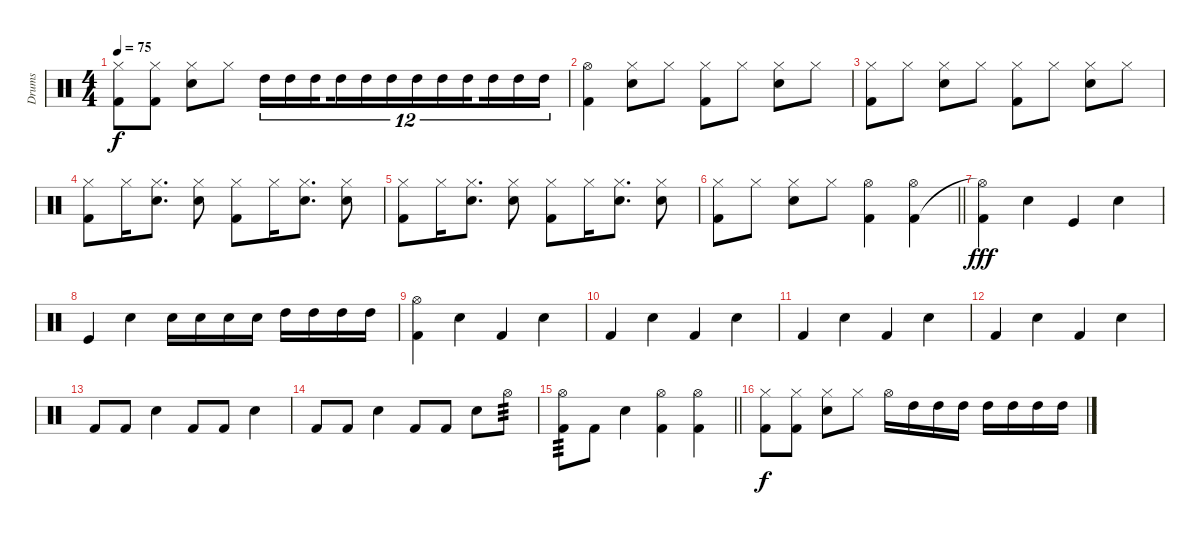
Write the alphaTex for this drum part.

\track ("Drums" "Drums") {instrument percussion}
\staff {score}
\articulation defaults
\ts (4 4)
\tempo 75
\clef neutral
\ks c
("Hi-Hat (closed)" "Kick (hit) 2").8{dy f} ("Hi-Hat (closed)" "Kick (hit) 2").8 ("Hi-Hat (closed)" "Snare (hit) 2").8 "Hi-Hat (closed)".8 "High Tom (hit)".16{tu (12 8)} "High Tom (hit)".16{tu (12 8)} "High Tom (hit)".16{tu (12 8) beam splitsecondary} "High Tom (hit)".16{tu (12 8)} "High Tom (hit)".16{tu (12 8)} "High Tom (hit)".16{tu (12 8)} "High Tom (hit)".16{tu (12 8)} "High Tom (hit)".16{tu (12 8)} "High Tom (hit)".16{tu (12 8) beam splitsecondary} "High Tom (hit)".16{tu (12 8)} "High Tom (hit)".16{tu (12 8)} "High Tom (hit)".16{tu (12 8)} |
("Hi-Hat (open)" "Kick (hit) 2").4 ("Hi-Hat (closed)" "Snare (hit) 2").8 "Hi-Hat (closed)".8 ("Hi-Hat (closed)" "Kick (hit) 2").8 "Hi-Hat (closed)".8 ("Hi-Hat (closed)" "Snare (hit) 2").8 "Hi-Hat (closed)".8 |
("Hi-Hat (closed)" "Kick (hit) 2").8 "Hi-Hat (closed)".8 ("Hi-Hat (closed)" "Snare (hit) 2").8 "Hi-Hat (closed)".8 ("Hi-Hat (closed)" "Kick (hit) 2").8 "Hi-Hat (closed)".8 ("Hi-Hat (closed)" "Snare (hit) 2").8 "Hi-Hat (closed)".8 |
("Kick (hit) 2" "Hi-Hat (closed)").8 "Hi-Hat (closed)".16 ("Snare (hit) 2" "Hi-Hat (closed)").8{d} ("Snare (hit) 2" "Hi-Hat (closed)").8 ("Kick (hit) 2" "Hi-Hat (closed)").8 "Hi-Hat (closed)".16 ("Snare (hit) 2" "Hi-Hat (closed)").8{d} ("Snare (hit) 2" "Hi-Hat (closed)").8 |
("Kick (hit) 2" "Hi-Hat (closed)").8 "Hi-Hat (closed)".16 ("Snare (hit) 2" "Hi-Hat (closed)").8{d} ("Snare (hit) 2" "Hi-Hat (closed)").8 ("Kick (hit) 2" "Hi-Hat (closed)").8 "Hi-Hat (closed)".16 ("Snare (hit) 2" "Hi-Hat (closed)").8{d} ("Snare (hit) 2" "Hi-Hat (closed)").8 |
\barLineRight lightlight
("Hi-Hat (closed)" "Kick (hit) 2").8 "Hi-Hat (closed)".8 ("Hi-Hat (closed)" "Snare (hit) 2").8 "Hi-Hat (closed)".8 ("Hi-Hat (open)" "Kick (hit) 2").4 ("Hi-Hat (open)" "Kick (hit) 2").4 |
("Kick (hit) 2" "Hi-Hat (open)"{t}).4{dy fff} "Snare (hit) 2".4 "Kick (hit)".4 "Snare (hit) 2".4 |
"Kick (hit)".4 "Snare (hit) 2".4 "Snare (hit) 2".16 "Snare (hit) 2".16 "Snare (hit) 2".16 "Snare (hit) 2".16 "High Tom (hit)".16 "High Tom (hit)".16 "High Tom (hit)".16 "High Tom (hit)".16 |
("Hi-Hat (open)" "Kick (hit) 2").4 "Snare (hit) 2".4 "Kick (hit) 2".4 "Snare (hit) 2".4 |
"Kick (hit) 2".4 "Snare (hit) 2".4 "Kick (hit) 2".4 "Snare (hit) 2".4 |
"Kick (hit) 2".4 "Snare (hit) 2".4 "Kick (hit) 2".4 "Snare (hit) 2".4 |
"Kick (hit) 2".4 "Snare (hit) 2".4 "Kick (hit) 2".4 "Snare (hit) 2".4 |
"Kick (hit) 2".8 "Kick (hit) 2".8 "Snare (hit) 2".4 "Kick (hit) 2".8 "Kick (hit) 2".8 "Snare (hit) 2".4 |
"Kick (hit) 2".8 "Kick (hit) 2".8 "Snare (hit) 2".4 "Kick (hit) 2".8 "Kick (hit) 2".8 "Snare (hit) 2".8 "Hi-Hat (open)".8{tp 3} |
\barLineRight lightlight
("Hi-Hat (open)" "Kick (hit) 2").8{tp 3} "Kick (hit) 2".8 "Snare (hit) 2".4 ("Hi-Hat (open)" "Kick (hit) 2").4 ("Hi-Hat (open)" "Kick (hit) 2").4 |
("Hi-Hat (closed)" "Kick (hit) 2").8{dy f} ("Hi-Hat (closed)" "Kick (hit) 2").8 ("Hi-Hat (closed)" "Snare (hit) 2").8 "Hi-Hat (closed)".8 "Hi-Hat (open)".16 "High Tom (hit)".16 "High Tom (hit)".16 "High Tom (hit)".16 "High Tom (hit)".16 "High Tom (hit)".16 "High Tom (hit)".16 "High Tom (hit)".16
